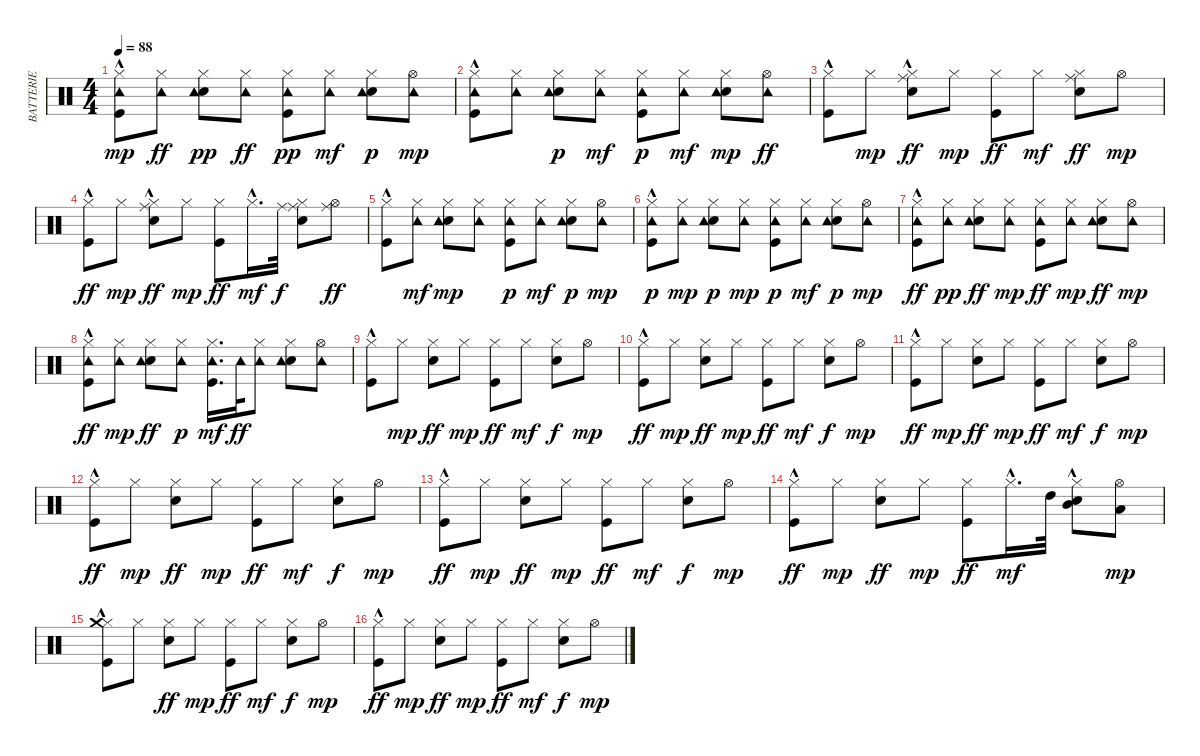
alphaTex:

\track ("BATTERIE" "BATTERIE") {instrument percussion}
\staff {score}
\articulation defaults
\ts (4 4)
\tempo 88
\clef neutral
\ks c
("Kick (hit)"{hac} "Hi-Hat (closed)" "Tambourine (hit)").8{dy mp} ("Hi-Hat (closed)" "Tambourine (hit)").8{dy ff} ("Electric Snare (hit)" "Hi-Hat (closed)" "Tambourine (hit)").8{dy pp} ("Hi-Hat (closed)" "Tambourine (hit)").8{dy ff} ("Kick (hit)" "Hi-Hat (closed)" "Tambourine (hit)").8{dy pp} ("Hi-Hat (closed)" "Tambourine (hit)").8{dy mf} ("Electric Snare (hit)" "Hi-Hat (closed)" "Tambourine (hit)").8{dy p} ("Hi-Hat (open)" "Tambourine (hit)").8{dy mp} |
("Kick (hit)"{hac} "Hi-Hat (closed)" "Tambourine (hit)").8 ("Hi-Hat (closed)" "Tambourine (hit)").8 ("Electric Snare (hit)" "Hi-Hat (closed)" "Tambourine (hit)").8{dy p} ("Hi-Hat (closed)" "Tambourine (hit)").8{dy mf} ("Kick (hit)" "Hi-Hat (closed)" "Tambourine (hit)").8{dy p} ("Hi-Hat (closed)" "Tambourine (hit)").8{dy mf} ("Electric Snare (hit)" "Hi-Hat (closed)" "Tambourine (hit)").8{dy mp} ("Hi-Hat (open)" "Tambourine (hit)").8{dy ff} |
("Kick (hit)"{hac} "Hi-Hat (closed)").8 "Hi-Hat (closed)".8{dy mp} ("Electric Snare (hit)" "Hi-Hat (closed)" "Ride (middle)"{hac}).8{dy ff} "Hi-Hat (closed)".8{dy mp} ("Kick (hit)" "Hi-Hat (closed)").8{dy ff} "Hi-Hat (closed)".8{dy mf} ("Electric Snare (hit)" "Hi-Hat (closed)" "Ride (middle)").8{dy ff} "Hi-Hat (open)".8{dy mp} |
("Kick (hit)"{hac} "Hi-Hat (closed)").8{dy ff} "Hi-Hat (closed)".8{dy mp} ("Electric Snare (hit)" "Hi-Hat (closed)" "Ride (middle)"{hac}).8{dy ff} "Hi-Hat (closed)".8{dy mp} ("Kick (hit)" "Hi-Hat (closed)").8{dy ff} "Hi-Hat (closed)"{hac}.16{d dy mf} "Ride (middle)".32{dy f} ("Electric Snare (hit)" "Hi-Hat (closed)" "Ride (middle)").8 ("Hi-Hat (open)" "Ride (middle)").8{dy ff} |
("Kick (hit)"{hac} "Hi-Hat (closed)").8 ("Hi-Hat (closed)" "Tambourine (hit)").8{dy mf} ("Electric Snare (hit)" "Hi-Hat (closed)" "Tambourine (hit)").8{dy mp} ("Hi-Hat (closed)" "Tambourine (hit)").8 ("Kick (hit)" "Hi-Hat (closed)" "Tambourine (hit)").8{dy p} ("Hi-Hat (closed)" "Tambourine (hit)").8{dy mf} ("Electric Snare (hit)" "Hi-Hat (closed)" "Tambourine (hit)").8{dy p} ("Hi-Hat (open)" "Tambourine (hit)").8{dy mp} |
("Kick (hit)"{hac} "Hi-Hat (closed)" "Tambourine (hit)").8{dy p} ("Hi-Hat (closed)" "Tambourine (hit)").8{dy mp} ("Electric Snare (hit)" "Hi-Hat (closed)" "Tambourine (hit)").8{dy p} ("Hi-Hat (closed)" "Tambourine (hit)").8{dy mp} ("Kick (hit)" "Hi-Hat (closed)" "Tambourine (hit)").8{dy p} ("Hi-Hat (closed)" "Tambourine (hit)").8{dy mf} ("Electric Snare (hit)" "Hi-Hat (closed)" "Tambourine (hit)").8{dy p} ("Hi-Hat (open)" "Tambourine (hit)").8{dy mp} |
("Kick (hit)"{hac} "Hi-Hat (closed)" "Tambourine (hit)").8{dy ff} ("Hi-Hat (closed)" "Tambourine (hit)").8{dy pp} ("Electric Snare (hit)" "Hi-Hat (closed)" "Tambourine (hit)").8{dy ff} ("Hi-Hat (closed)" "Tambourine (hit)").8{dy mp} ("Kick (hit)" "Hi-Hat (closed)" "Tambourine (hit)").8{dy ff} ("Hi-Hat (closed)" "Tambourine (hit)").8{dy mp} ("Electric Snare (hit)" "Hi-Hat (closed)" "Tambourine (hit)").8{dy ff} ("Hi-Hat (open)" "Tambourine (hit)").8{dy mp} |
("Kick (hit)"{hac} "Hi-Hat (closed)" "Tambourine (hit)").8{dy ff} ("Hi-Hat (closed)" "Tambourine (hit)").8{dy mp} ("Electric Snare (hit)" "Hi-Hat (closed)" "Tambourine (hit)").8{dy ff} ("Hi-Hat (closed)" "Tambourine (hit)").8{dy p} ("Kick (hit)" "Hi-Hat (closed)" "Tambourine (hit)").16{d dy mf} "Tambourine (hit)".32{dy ff} ("Hi-Hat (closed)" "Tambourine (hit)").8 ("Electric Snare (hit)" "Hi-Hat (closed)" "Tambourine (hit)").8 ("Hi-Hat (open)" "Tambourine (hit)").8 |
("Kick (hit)"{hac} "Hi-Hat (closed)").8 "Hi-Hat (closed)".8{dy mp} ("Electric Snare (hit)" "Hi-Hat (closed)").8{dy ff} "Hi-Hat (closed)".8{dy mp} ("Kick (hit)" "Hi-Hat (closed)").8{dy ff} "Hi-Hat (closed)".8{dy mf} ("Electric Snare (hit)" "Hi-Hat (closed)").8{dy f} "Hi-Hat (open)".8{dy mp} |
("Kick (hit)"{hac} "Hi-Hat (closed)").8{dy ff} "Hi-Hat (closed)".8{dy mp} ("Electric Snare (hit)" "Hi-Hat (closed)").8{dy ff} "Hi-Hat (closed)".8{dy mp} ("Kick (hit)" "Hi-Hat (closed)").8{dy ff} "Hi-Hat (closed)".8{dy mf} ("Electric Snare (hit)" "Hi-Hat (closed)").8{dy f} "Hi-Hat (open)".8{dy mp} |
("Kick (hit)"{hac} "Hi-Hat (closed)").8{dy ff} "Hi-Hat (closed)".8{dy mp} ("Electric Snare (hit)" "Hi-Hat (closed)").8{dy ff} "Hi-Hat (closed)".8{dy mp} ("Kick (hit)" "Hi-Hat (closed)").8{dy ff} "Hi-Hat (closed)".8{dy mf} ("Electric Snare (hit)" "Hi-Hat (closed)").8{dy f} "Hi-Hat (open)".8{dy mp} |
("Kick (hit)"{hac} "Hi-Hat (closed)").8{dy ff} "Hi-Hat (closed)".8{dy mp} ("Electric Snare (hit)" "Hi-Hat (closed)").8{dy ff} "Hi-Hat (closed)".8{dy mp} ("Kick (hit)" "Hi-Hat (closed)").8{dy ff} "Hi-Hat (closed)".8{dy mf} ("Electric Snare (hit)" "Hi-Hat (closed)").8{dy f} "Hi-Hat (open)".8{dy mp} |
("Kick (hit)"{hac} "Hi-Hat (closed)").8{dy ff} "Hi-Hat (closed)".8{dy mp} ("Electric Snare (hit)" "Hi-Hat (closed)").8{dy ff} "Hi-Hat (closed)".8{dy mp} ("Kick (hit)" "Hi-Hat (closed)").8{dy ff} "Hi-Hat (closed)".8{dy mf} ("Electric Snare (hit)" "Hi-Hat (closed)").8{dy f} "Hi-Hat (open)".8{dy mp} |
("Kick (hit)"{hac} "Hi-Hat (closed)").8{dy ff} "Hi-Hat (closed)".8{dy mp} ("Electric Snare (hit)" "Hi-Hat (closed)").8{dy ff} "Hi-Hat (closed)".8{dy mp} ("Kick (hit)" "Hi-Hat (closed)").8{dy ff} "Hi-Hat (closed)"{hac}.16{d dy mf} "High Tom (hit)".32 ("Electric Snare (hit)" "Hi-Hat (closed)" "Mid Tom (hit)"{hac}).8 ("Hi-Hat (open)" "Low Tom (hit)").8{dy mp} |
("Kick (hit)"{hac} "Hi-Hat (closed)" "Crash medium (hit)").8 "Hi-Hat (closed)".8 ("Electric Snare (hit)" "Hi-Hat (closed)").8{dy ff} "Hi-Hat (closed)".8{dy mp} ("Kick (hit)" "Hi-Hat (closed)").8{dy ff} "Hi-Hat (closed)".8{dy mf} ("Electric Snare (hit)" "Hi-Hat (closed)").8{dy f} "Hi-Hat (open)".8{dy mp} |
("Kick (hit)"{hac} "Hi-Hat (closed)").8{dy ff} "Hi-Hat (closed)".8{dy mp} ("Electric Snare (hit)" "Hi-Hat (closed)").8{dy ff} "Hi-Hat (closed)".8{dy mp} ("Kick (hit)" "Hi-Hat (closed)").8{dy ff} "Hi-Hat (closed)".8{dy mf} ("Electric Snare (hit)" "Hi-Hat (closed)").8{dy f} "Hi-Hat (open)".8{dy mp}
